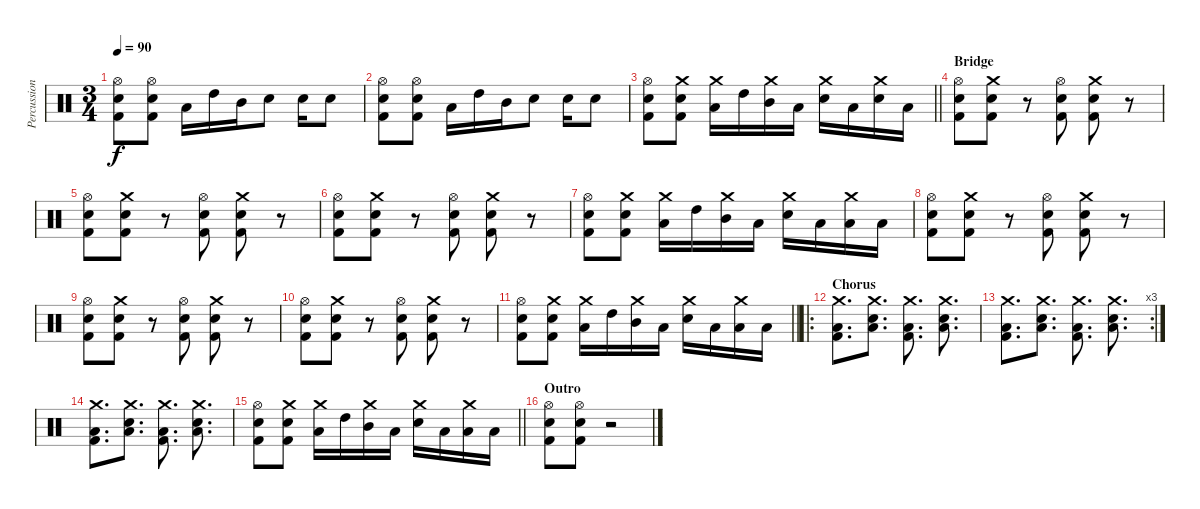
\track ("Percussion" "Percussion") {instrument percussion}
\staff {score}
\articulation defaults
\ts (3 4)
\tempo 90
\clef neutral
\ks c
("Hi-Hat (open)" "Snare (hit) 2" "Kick (hit) 2").8{dy f} ("Hi-Hat (open)" "Snare (hit) 2" "Kick (hit) 2").8 "Low Tom (hit)".16 "High Tom (hit)".16 "Mid Tom (hit)".16 "Snare (hit) 2".8 "Snare (hit) 2".16 "Snare (hit) 2".8 |
("Hi-Hat (open)" "Snare (hit) 2" "Kick (hit) 2").8 ("Hi-Hat (open)" "Snare (hit) 2" "Kick (hit) 2").8 "Low Tom (hit)".16 "High Tom (hit)".16 "Mid Tom (hit)".16 "Snare (hit) 2".8 "Snare (hit) 2".16 "Snare (hit) 2".8 |
\barLineRight lightlight
("Hi-Hat (open)" "Snare (hit) 2" "Kick (hit) 2").8 ("Crash medium (hit)" "Snare (hit) 2" "Kick (hit) 2").8 ("Crash medium (hit)" "Low Tom (hit)").16 "High Tom (hit)".16 ("Crash medium (hit)" "Mid Tom (hit)").16 "Low Tom (hit)".16 ("Crash medium (hit)" "Electric Snare (hit)").16 "Low Tom (hit)".16 ("Crash medium (hit)" "Snare (hit) 2").16 "Low Tom (hit)".16 |
\section ("" "Bridge")
("Hi-Hat (open)" "Snare (hit) 2" "Kick (hit) 2").8 ("Crash medium (hit)" "Snare (hit) 2" "Kick (hit) 2").8 r.8 ("Hi-Hat (open)" "Snare (hit) 2" "Kick (hit) 2").8 ("Crash medium (hit)" "Snare (hit) 2" "Kick (hit) 2").8 r.8 |
("Hi-Hat (open)" "Snare (hit) 2" "Kick (hit) 2").8 ("Crash medium (hit)" "Snare (hit) 2" "Kick (hit) 2").8 r.8 ("Hi-Hat (open)" "Snare (hit) 2" "Kick (hit) 2").8 ("Crash medium (hit)" "Snare (hit) 2" "Kick (hit) 2").8 r.8 |
("Hi-Hat (open)" "Snare (hit) 2" "Kick (hit) 2").8 ("Crash medium (hit)" "Snare (hit) 2" "Kick (hit) 2").8 r.8 ("Hi-Hat (open)" "Snare (hit) 2" "Kick (hit) 2").8 ("Crash medium (hit)" "Snare (hit) 2" "Kick (hit) 2").8 r.8 |
("Hi-Hat (open)" "Snare (hit) 2" "Kick (hit) 2").8 ("Crash medium (hit)" "Snare (hit) 2" "Kick (hit) 2").8 ("Crash medium (hit)" "Low Tom (hit)").16 "High Tom (hit)".16 ("Crash medium (hit)" "Mid Tom (hit)").16 "Low Tom (hit)".16 ("Crash medium (hit)" "Electric Snare (hit)").16 "Low Tom (hit)".16 ("Crash medium (hit)" "Low Tom (hit)").16 "Low Tom (hit)".16 |
("Hi-Hat (open)" "Snare (hit) 2" "Kick (hit) 2").8 ("Crash medium (hit)" "Snare (hit) 2" "Kick (hit) 2").8 r.8 ("Hi-Hat (open)" "Snare (hit) 2" "Kick (hit) 2").8 ("Crash medium (hit)" "Snare (hit) 2" "Kick (hit) 2").8 r.8 |
("Hi-Hat (open)" "Snare (hit) 2" "Kick (hit) 2").8 ("Crash medium (hit)" "Snare (hit) 2" "Kick (hit) 2").8 r.8 ("Hi-Hat (open)" "Snare (hit) 2" "Kick (hit) 2").8 ("Crash medium (hit)" "Snare (hit) 2" "Kick (hit) 2").8 r.8 |
("Hi-Hat (open)" "Snare (hit) 2" "Kick (hit) 2").8 ("Crash medium (hit)" "Snare (hit) 2" "Kick (hit) 2").8 r.8 ("Hi-Hat (open)" "Snare (hit) 2" "Kick (hit) 2").8 ("Crash medium (hit)" "Snare (hit) 2" "Kick (hit) 2").8 r.8 |
\barLineRight lightlight
("Hi-Hat (open)" "Snare (hit) 2" "Kick (hit) 2").8 ("Crash medium (hit)" "Snare (hit) 2" "Kick (hit) 2").8 ("Crash medium (hit)" "Low Tom (hit)").16 "High Tom (hit)".16 ("Crash medium (hit)" "Mid Tom (hit)").16 "Low Tom (hit)".16 ("Crash medium (hit)" "Electric Snare (hit)").16 "Low Tom (hit)".16 ("Crash medium (hit)" "Low Tom (hit)").16 "Low Tom (hit)".16 |
\ro
\section ("" "Chorus")
("Crash medium (hit)" "Low Tom (hit)" "Kick (hit) 2").8{d} ("Crash medium (hit)" "Low Tom (hit)" "Electric Snare (hit)").8{d} ("Crash medium (hit)" "Low Tom (hit)" "Kick (hit) 2").8{d} ("Crash medium (hit)" "Low Tom (hit)" "Electric Snare (hit)").8{d} |
\rc 3
("Crash medium (hit)" "Low Tom (hit)" "Kick (hit) 2").8{d} ("Crash medium (hit)" "Low Tom (hit)" "Electric Snare (hit)").8{d} ("Crash medium (hit)" "Low Tom (hit)" "Kick (hit) 2").8{d} ("Crash medium (hit)" "Low Tom (hit)" "Electric Snare (hit)").8{d} |
("Crash medium (hit)" "Low Tom (hit)" "Kick (hit) 2").8{d} ("Crash medium (hit)" "Low Tom (hit)" "Electric Snare (hit)").8{d} ("Crash medium (hit)" "Low Tom (hit)" "Kick (hit) 2").8{d} ("Crash medium (hit)" "Low Tom (hit)" "Electric Snare (hit)").8{d} |
\barLineRight lightlight
("Hi-Hat (open)" "Snare (hit) 2" "Kick (hit) 2").8 ("Crash medium (hit)" "Snare (hit) 2" "Kick (hit) 2").8 ("Crash medium (hit)" "Low Tom (hit)").16 "High Tom (hit)".16 ("Crash medium (hit)" "Mid Tom (hit)").16 "Low Tom (hit)".16 ("Crash medium (hit)" "Electric Snare (hit)").16 "Low Tom (hit)".16 ("Crash medium (hit)" "Low Tom (hit)").16 "Low Tom (hit)".16 |
\section ("" "Outro")
("Hi-Hat (open)" "Snare (hit) 2" "Kick (hit) 2").8 ("Hi-Hat (open)" "Snare (hit) 2" "Kick (hit) 2").8 r.2
